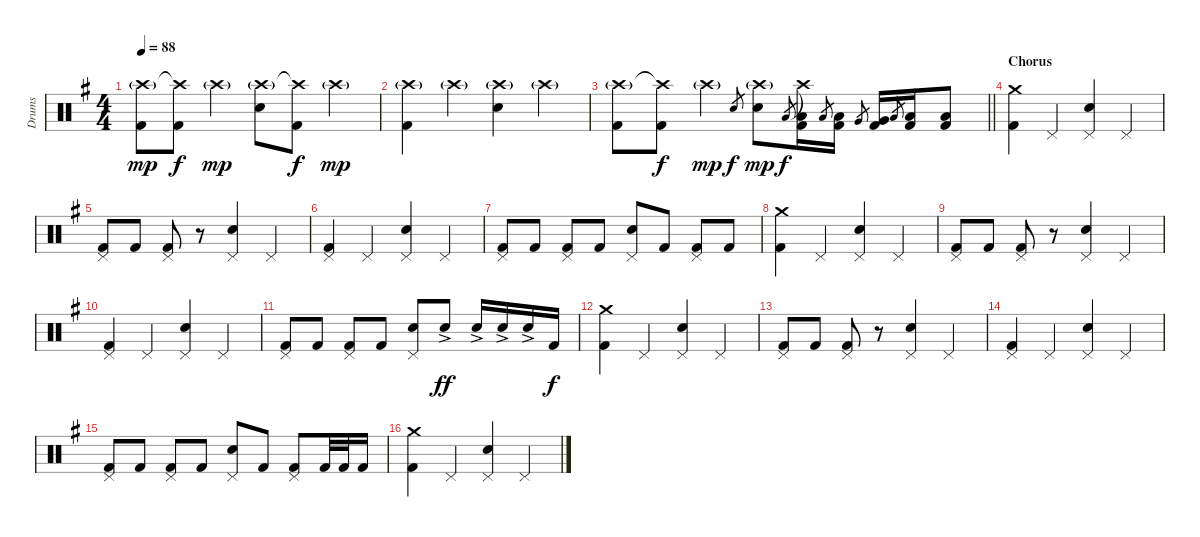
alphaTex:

\track ("Drums" "Drums") {instrument percussion}
\staff {score}
\articulation defaults
\ts (4 4)
\tempo 88
\clef neutral
\ks g
("Crash high (hit)"{g} "Kick (hit) 2").8{dy mp} ("Crash high (hit)"{t} "Kick (hit) 2").8{dy f} "Crash high (hit)"{g}.4{dy mp} ("Crash high (hit)"{g} "Electric Snare (hit)").8 ("Crash high (hit)"{t} "Kick (hit) 2").8{dy f} "Crash high (hit)"{g}.4{dy mp} |
("Crash high (hit)"{g} "Kick (hit) 2").4 "Crash high (hit)"{g}.4 ("Crash high (hit)"{g} "Electric Snare (hit)").4 "Crash high (hit)"{g}.4 |
\barLineRight lightlight
("Crash high (hit)"{g} "Kick (hit) 2").8 ("Crash high (hit)"{t} "Kick (hit) 2").8{dy f} "Crash high (hit)"{g}.4{dy mp} "Electric Snare (hit)".8{gr dy f} ("Crash high (hit)"{g} "Electric Snare (hit)").8{dy mp} "Low Floor Tom (hit)".8{gr dy f} ("Crash high (hit)"{t} "Low Floor Tom (hit)" "Kick (hit) 2").16 "Low Tom (hit)".8{gr} ("Low Tom (hit)" "Kick (hit) 2").16 "Very Low Tom (hit)".8{gr} ("Very Low Tom (hit)" "Kick (hit) 2").16 "Low Floor Tom (hit)".8{gr} ("Low Floor Tom (hit)" "Kick (hit) 2").16 ("Low Floor Tom (hit)" "Kick (hit) 2").8 |
\section ("" "Chorus")
("Crash medium (hit)" "Kick (hit) 2").4 "Pedal Hi-Hat (hit)".4 ("Pedal Hi-Hat (hit)" "Electric Snare (hit)").4 "Pedal Hi-Hat (hit)".4 |
("Pedal Hi-Hat (hit)" "Kick (hit) 2").8 "Kick (hit) 2".8 ("Pedal Hi-Hat (hit)" "Kick (hit) 2").8 r.8 ("Pedal Hi-Hat (hit)" "Electric Snare (hit)").4 "Pedal Hi-Hat (hit)".4 |
("Pedal Hi-Hat (hit)" "Kick (hit) 2").4 "Pedal Hi-Hat (hit)".4 ("Pedal Hi-Hat (hit)" "Electric Snare (hit)").4 "Pedal Hi-Hat (hit)".4 |
("Pedal Hi-Hat (hit)" "Kick (hit) 2").8 "Kick (hit) 2".8 ("Pedal Hi-Hat (hit)" "Kick (hit) 2").8 "Kick (hit) 2".8 ("Pedal Hi-Hat (hit)" "Electric Snare (hit)").8 "Kick (hit) 2".8 ("Pedal Hi-Hat (hit)" "Kick (hit) 2").8 "Kick (hit) 2".8 |
("Crash medium (hit)" "Kick (hit) 2").4 "Pedal Hi-Hat (hit)".4 ("Pedal Hi-Hat (hit)" "Electric Snare (hit)").4 "Pedal Hi-Hat (hit)".4 |
("Pedal Hi-Hat (hit)" "Kick (hit) 2").8 "Kick (hit) 2".8 ("Pedal Hi-Hat (hit)" "Kick (hit) 2").8 r.8 ("Pedal Hi-Hat (hit)" "Electric Snare (hit)").4 "Pedal Hi-Hat (hit)".4 |
("Pedal Hi-Hat (hit)" "Kick (hit) 2").4 "Pedal Hi-Hat (hit)".4 ("Pedal Hi-Hat (hit)" "Electric Snare (hit)").4 "Pedal Hi-Hat (hit)".4 |
("Pedal Hi-Hat (hit)" "Kick (hit) 2").8 "Kick (hit) 2".8 ("Pedal Hi-Hat (hit)" "Kick (hit) 2").8 "Kick (hit) 2".8 ("Pedal Hi-Hat (hit)" "Electric Snare (hit)").8 "Electric Snare (hit)"{ac}.8{dy ff} "Electric Snare (hit)"{ac}.16 "Electric Snare (hit)"{ac}.16 "Electric Snare (hit)"{ac}.16 "Kick (hit) 2".16{dy f} |
("Crash medium (hit)" "Kick (hit) 2").4 "Pedal Hi-Hat (hit)".4 ("Pedal Hi-Hat (hit)" "Electric Snare (hit)").4 "Pedal Hi-Hat (hit)".4 |
("Pedal Hi-Hat (hit)" "Kick (hit) 2").8 "Kick (hit) 2".8 ("Pedal Hi-Hat (hit)" "Kick (hit) 2").8 r.8 ("Pedal Hi-Hat (hit)" "Electric Snare (hit)").4 "Pedal Hi-Hat (hit)".4 |
("Pedal Hi-Hat (hit)" "Kick (hit) 2").4 "Pedal Hi-Hat (hit)".4 ("Pedal Hi-Hat (hit)" "Electric Snare (hit)").4 "Pedal Hi-Hat (hit)".4 |
("Pedal Hi-Hat (hit)" "Kick (hit) 2").8 "Kick (hit) 2".8 ("Pedal Hi-Hat (hit)" "Kick (hit) 2").8 "Kick (hit) 2".8 ("Pedal Hi-Hat (hit)" "Electric Snare (hit)").8 "Kick (hit) 2".8 ("Pedal Hi-Hat (hit)" "Kick (hit) 2").8 "Kick (hit) 2".32 "Kick (hit) 2".32 "Kick (hit) 2".16 |
("Crash medium (hit)" "Kick (hit) 2").4 "Pedal Hi-Hat (hit)".4 ("Pedal Hi-Hat (hit)" "Electric Snare (hit)").4 "Pedal Hi-Hat (hit)".4
